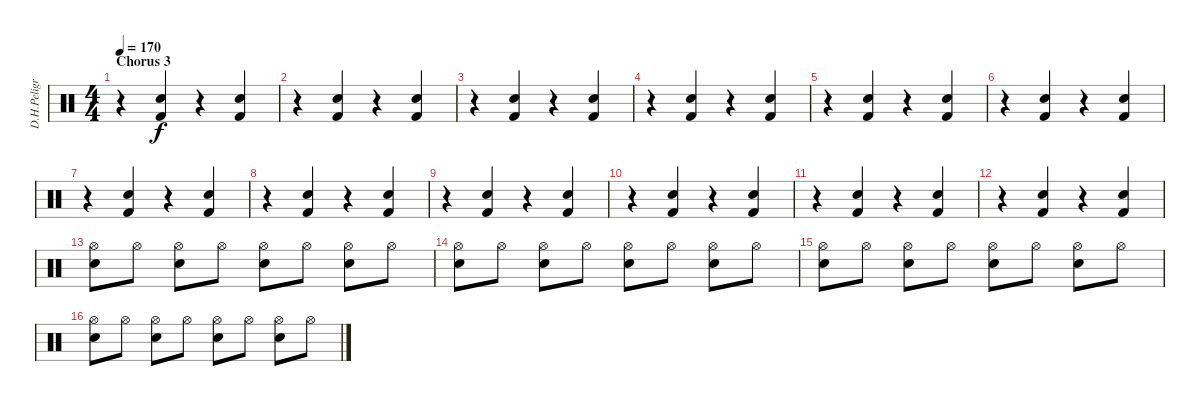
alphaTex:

\track ("D.H.Peligro" "D.H.Peligr") {instrument percussion}
\staff {score}
\articulation defaults
\ts (4 4)
\section ("" "Chorus 3")
\tempo 170
\clef neutral
\ks c
r.4{dy f} ("Electric Snare (hit)" "Kick (hit) 2").4 r.4 ("Electric Snare (hit)" "Kick (hit) 2").4 |
r.4 ("Electric Snare (hit)" "Kick (hit) 2").4 r.4 ("Electric Snare (hit)" "Kick (hit) 2").4 |
r.4 ("Electric Snare (hit)" "Kick (hit) 2").4 r.4 ("Electric Snare (hit)" "Kick (hit) 2").4 |
r.4 ("Electric Snare (hit)" "Kick (hit) 2").4 r.4 ("Electric Snare (hit)" "Kick (hit) 2").4 |
r.4 ("Electric Snare (hit)" "Kick (hit) 2").4 r.4 ("Electric Snare (hit)" "Kick (hit) 2").4 |
r.4 ("Electric Snare (hit)" "Kick (hit) 2").4 r.4 ("Electric Snare (hit)" "Kick (hit) 2").4 |
r.4 ("Electric Snare (hit)" "Kick (hit) 2").4 r.4 ("Electric Snare (hit)" "Kick (hit) 2").4 |
r.4 ("Electric Snare (hit)" "Kick (hit) 2").4 r.4 ("Electric Snare (hit)" "Kick (hit) 2").4 |
r.4 ("Electric Snare (hit)" "Kick (hit) 2").4 r.4 ("Electric Snare (hit)" "Kick (hit) 2").4 |
r.4 ("Electric Snare (hit)" "Kick (hit) 2").4 r.4 ("Electric Snare (hit)" "Kick (hit) 2").4 |
r.4 ("Electric Snare (hit)" "Kick (hit) 2").4 r.4 ("Electric Snare (hit)" "Kick (hit) 2").4 |
r.4 ("Electric Snare (hit)" "Kick (hit) 2").4 r.4 ("Electric Snare (hit)" "Kick (hit) 2").4 |
("Hi-Hat (open)" "Electric Snare (hit)").8 "Hi-Hat (open)".8 ("Hi-Hat (open)" "Electric Snare (hit)").8 "Hi-Hat (open)".8 ("Hi-Hat (open)" "Electric Snare (hit)").8 "Hi-Hat (open)".8 ("Hi-Hat (open)" "Electric Snare (hit)").8 "Hi-Hat (open)".8 |
("Hi-Hat (open)" "Electric Snare (hit)").8 "Hi-Hat (open)".8 ("Hi-Hat (open)" "Electric Snare (hit)").8 "Hi-Hat (open)".8 ("Hi-Hat (open)" "Electric Snare (hit)").8 "Hi-Hat (open)".8 ("Hi-Hat (open)" "Electric Snare (hit)").8 "Hi-Hat (open)".8 |
("Hi-Hat (open)" "Electric Snare (hit)").8 "Hi-Hat (open)".8 ("Hi-Hat (open)" "Electric Snare (hit)").8 "Hi-Hat (open)".8 ("Hi-Hat (open)" "Electric Snare (hit)").8 "Hi-Hat (open)".8 ("Hi-Hat (open)" "Electric Snare (hit)").8 "Hi-Hat (open)".8 |
("Hi-Hat (open)" "Electric Snare (hit)").8 "Hi-Hat (open)".8 ("Hi-Hat (open)" "Electric Snare (hit)").8 "Hi-Hat (open)".8 ("Hi-Hat (open)" "Electric Snare (hit)").8 "Hi-Hat (open)".8 ("Hi-Hat (open)" "Electric Snare (hit)").8 "Hi-Hat (open)".8
